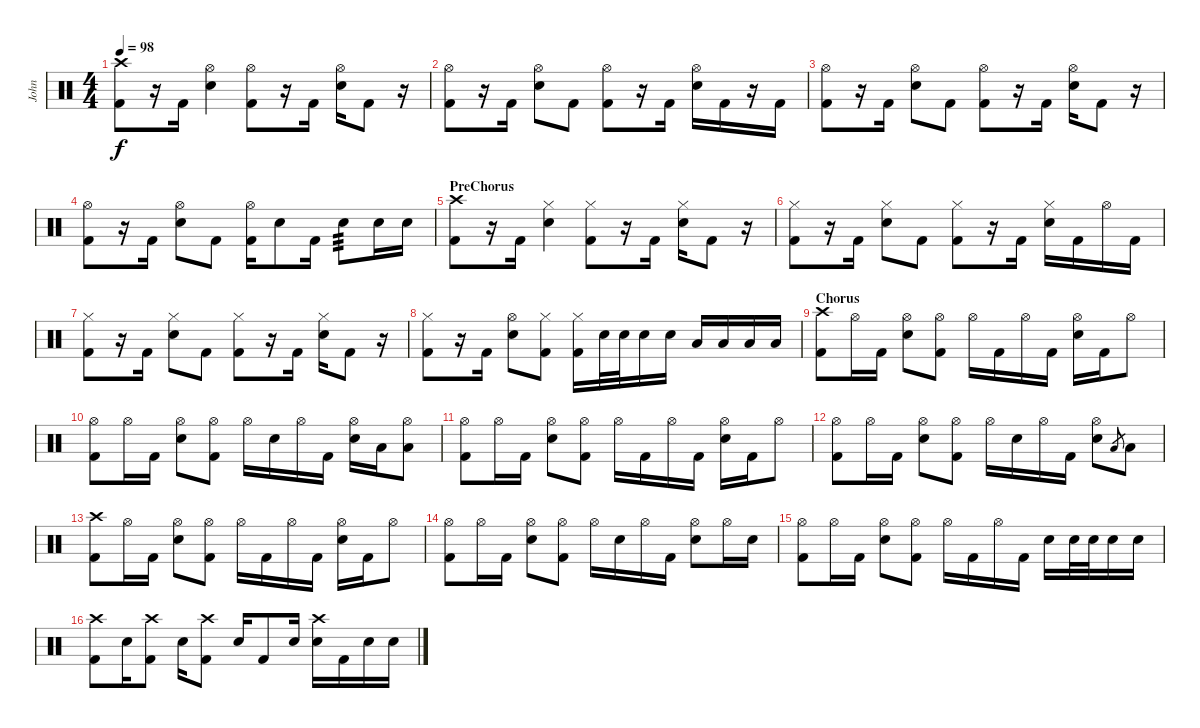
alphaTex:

\track ("John" "John") {instrument percussion}
\staff {score}
\articulation defaults
\ts (4 4)
\tempo 98
\clef neutral
\ks c
("Crash high (hit)" "Kick (hit) 2").8{dy f} r.16 "Kick (hit) 2".16 ("Hi-Hat (open)" "Snare (hit) 2").4 ("Hi-Hat (open)" "Kick (hit) 2").8 r.16 "Kick (hit) 2".16 ("Hi-Hat (open)" "Snare (hit) 2").16 "Kick (hit) 2".8 r.16 |
("Hi-Hat (open)" "Kick (hit) 2").8 r.16 "Kick (hit) 2".16 ("Hi-Hat (open)" "Snare (hit) 2").8 "Kick (hit) 2".8 ("Hi-Hat (open)" "Kick (hit) 2").8 r.16 "Kick (hit) 2".16 ("Hi-Hat (open)" "Snare (hit) 2").16 "Kick (hit) 2".16 r.16 "Kick (hit) 2".16 |
("Hi-Hat (open)" "Kick (hit) 2").8 r.16 "Kick (hit) 2".16 ("Hi-Hat (open)" "Snare (hit) 2").8 "Kick (hit) 2".8 ("Hi-Hat (open)" "Kick (hit) 2").8 r.16 "Kick (hit) 2".16 ("Hi-Hat (open)" "Snare (hit) 2").16 "Kick (hit) 2".8 r.16 |
("Hi-Hat (open)" "Kick (hit) 2").8 r.16 "Kick (hit) 2".16 ("Hi-Hat (open)" "Snare (hit) 2").8 "Kick (hit) 2".8 ("Hi-Hat (open)" "Kick (hit) 2").16 "Snare (hit) 2".8 "Kick (hit) 2".16 "Snare (hit) 2".8{tp 3} "Snare (hit) 2".16 "Snare (hit) 2".16 |
\section ("" "PreChorus")
("Crash high (hit)" "Kick (hit) 2").8 r.16 "Kick (hit) 2".16 ("Hi-Hat (closed)" "Snare (hit) 2").4 ("Hi-Hat (closed)" "Kick (hit) 2").8 r.16 "Kick (hit) 2".16 ("Hi-Hat (closed)" "Snare (hit) 2").16 "Kick (hit) 2".8 r.16 |
("Hi-Hat (closed)" "Kick (hit) 2").8 r.16 "Kick (hit) 2".16 ("Hi-Hat (closed)" "Snare (hit) 2").8 "Kick (hit) 2".8 ("Hi-Hat (closed)" "Kick (hit) 2").8 r.16 "Kick (hit) 2".16 ("Hi-Hat (closed)" "Snare (hit) 2").16 "Kick (hit) 2".16 "Hi-Hat (open)".16 "Kick (hit) 2".16 |
("Hi-Hat (closed)" "Kick (hit) 2").8 r.16 "Kick (hit) 2".16 ("Hi-Hat (closed)" "Snare (hit) 2").8 "Kick (hit) 2".8 ("Hi-Hat (closed)" "Kick (hit) 2").8 r.16 "Kick (hit) 2".16 ("Hi-Hat (closed)" "Snare (hit) 2").16 "Kick (hit) 2".8 r.16 |
("Hi-Hat (closed)" "Kick (hit) 2").8 r.16 "Kick (hit) 2".16 ("Hi-Hat (open)" "Snare (hit) 2").8 ("Hi-Hat (closed)" "Kick (hit) 2").8 ("Hi-Hat (closed)" "Kick (hit) 2").16 "Snare (hit) 2".32 "Snare (hit) 2".32 "Snare (hit) 2".16 "Snare (hit) 2".16 "Low Tom (hit)".16 "Low Tom (hit)".16 "Low Floor Tom (hit)".16 "Low Floor Tom (hit)".16 |
\section ("" "Chorus")
("Crash high (hit)" "Kick (hit) 2").8 "Hi-Hat (open)".16 "Kick (hit) 2".16 ("Hi-Hat (open)" "Snare (hit) 2").8 ("Hi-Hat (open)" "Kick (hit) 2").8 "Hi-Hat (open)".16 "Kick (hit) 2".16 "Hi-Hat (open)".16 "Kick (hit) 2".16 ("Hi-Hat (open)" "Snare (hit) 2").16 "Kick (hit) 2".16 "Hi-Hat (open)".8 |
("Hi-Hat (open)" "Kick (hit) 2").8 "Hi-Hat (open)".16 "Kick (hit) 2".16 ("Hi-Hat (open)" "Snare (hit) 2").8 ("Hi-Hat (open)" "Kick (hit) 2").8 "Hi-Hat (open)".16 "Snare (hit) 2".16 "Hi-Hat (open)".16 "Kick (hit) 2".16 ("Hi-Hat (open)" "Snare (hit) 2").16 "Low Tom (hit)".16 ("Hi-Hat (open)" "Low Floor Tom (hit)").8 |
("Hi-Hat (open)" "Kick (hit) 2").8 "Hi-Hat (open)".16 "Kick (hit) 2".16 ("Hi-Hat (open)" "Snare (hit) 2").8 ("Hi-Hat (open)" "Kick (hit) 2").8 "Hi-Hat (open)".16 "Kick (hit) 2".16 "Hi-Hat (open)".16 "Kick (hit) 2".16 ("Hi-Hat (open)" "Snare (hit) 2").16 "Kick (hit) 2".16 "Hi-Hat (open)".8 |
("Hi-Hat (open)" "Kick (hit) 2").8 "Hi-Hat (open)".16 "Kick (hit) 2".16 ("Hi-Hat (open)" "Snare (hit) 2").8 ("Hi-Hat (open)" "Kick (hit) 2").8 "Hi-Hat (open)".16 "Snare (hit) 2".16 "Hi-Hat (open)".16 "Kick (hit) 2".16 ("Hi-Hat (open)" "Snare (hit) 2").8 "Low Floor Tom (hit)".8{gr} "Low Floor Tom (hit)".8 |
("Crash high (hit)" "Kick (hit) 2").8 "Hi-Hat (open)".16 "Kick (hit) 2".16 ("Hi-Hat (open)" "Snare (hit) 2").8 ("Hi-Hat (open)" "Kick (hit) 2").8 "Hi-Hat (open)".16 "Kick (hit) 2".16 "Hi-Hat (open)".16 "Kick (hit) 2".16 ("Hi-Hat (open)" "Snare (hit) 2").16 "Kick (hit) 2".16 "Hi-Hat (open)".8 |
("Hi-Hat (open)" "Kick (hit) 2").8 "Hi-Hat (open)".16 "Kick (hit) 2".16 ("Hi-Hat (open)" "Snare (hit) 2").8 ("Hi-Hat (open)" "Kick (hit) 2").8 "Hi-Hat (open)".16 "Snare (hit) 2".16 "Hi-Hat (open)".16 "Kick (hit) 2".16 ("Hi-Hat (open)" "Snare (hit) 2").8 "Hi-Hat (open)".16 "Snare (hit) 2".16 |
("Hi-Hat (open)" "Kick (hit) 2").8 "Hi-Hat (open)".16 "Kick (hit) 2".16 ("Hi-Hat (open)" "Snare (hit) 2").8 ("Hi-Hat (open)" "Kick (hit) 2").8 "Hi-Hat (open)".16 "Kick (hit) 2".16 "Hi-Hat (open)".16 "Kick (hit) 2".16 "Snare (hit) 2".16 "Snare (hit) 2".32 "Snare (hit) 2".32 "Snare (hit) 2".16 "Snare (hit) 2".16 |
("Crash high (hit)" "Kick (hit) 2").8 "Snare (hit) 2".16 ("Crash high (hit)" "Kick (hit) 2").8 "Snare (hit) 2".16 ("Crash high (hit)" "Kick (hit) 2").8 "Snare (hit) 2".16 "Kick (hit) 2".8 "Snare (hit) 2".16 ("Crash high (hit)" "Snare (hit) 2").16 "Kick (hit) 2".16 "Snare (hit) 2".16 "Snare (hit) 2".16
